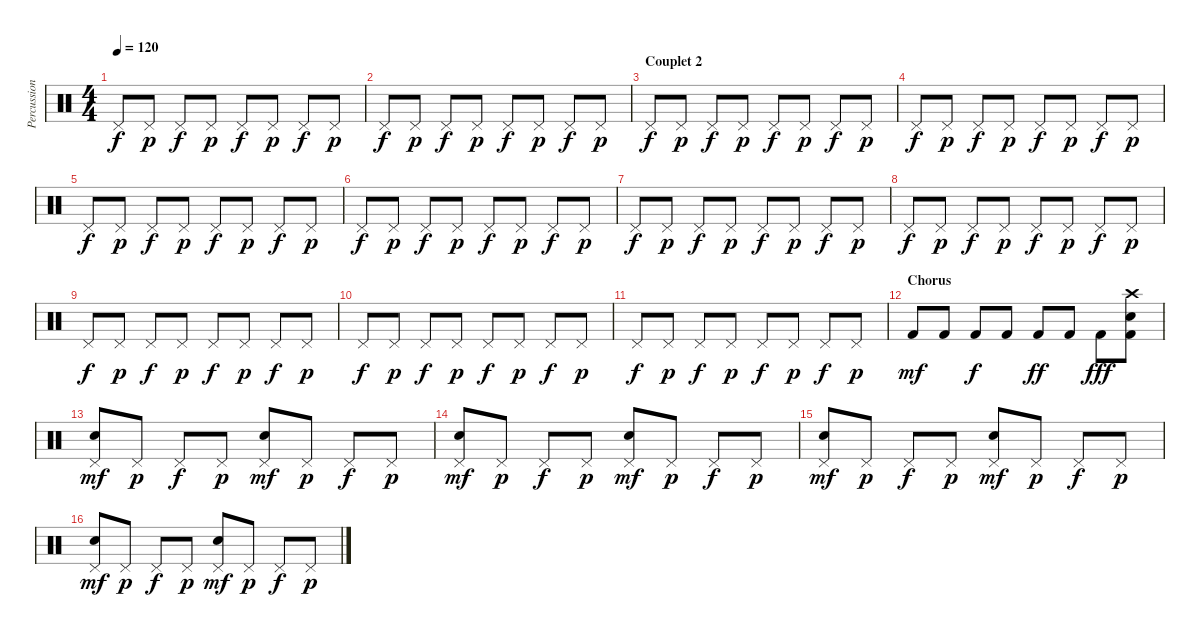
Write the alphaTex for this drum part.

\track ("Percussions" "Percussion") {instrument percussion}
\staff {score}
\articulation defaults
\ts (4 4)
\tempo 120
\clef neutral
\ks c "Pedal Hi-Hat (hit)".8{dy f} "Pedal Hi-Hat (hit)".8{dy p} "Pedal Hi-Hat (hit)".8{dy f} "Pedal Hi-Hat (hit)".8{dy p} "Pedal Hi-Hat (hit)".8{dy f} "Pedal Hi-Hat (hit)".8{dy p} "Pedal Hi-Hat (hit)".8{dy f} "Pedal Hi-Hat (hit)".8{dy p}
|
"Pedal Hi-Hat (hit)".8{dy f} "Pedal Hi-Hat (hit)".8{dy p} "Pedal Hi-Hat (hit)".8{dy f} "Pedal Hi-Hat (hit)".8{dy p} "Pedal Hi-Hat (hit)".8{dy f} "Pedal Hi-Hat (hit)".8{dy p} "Pedal Hi-Hat (hit)".8{dy f} "Pedal Hi-Hat (hit)".8{dy p} |
\section ("" "Couplet 2")
"Pedal Hi-Hat (hit)".8{dy f} "Pedal Hi-Hat (hit)".8{dy p} "Pedal Hi-Hat (hit)".8{dy f} "Pedal Hi-Hat (hit)".8{dy p} "Pedal Hi-Hat (hit)".8{dy f} "Pedal Hi-Hat (hit)".8{dy p} "Pedal Hi-Hat (hit)".8{dy f} "Pedal Hi-Hat (hit)".8{dy p} |
"Pedal Hi-Hat (hit)".8{dy f} "Pedal Hi-Hat (hit)".8{dy p} "Pedal Hi-Hat (hit)".8{dy f} "Pedal Hi-Hat (hit)".8{dy p} "Pedal Hi-Hat (hit)".8{dy f} "Pedal Hi-Hat (hit)".8{dy p} "Pedal Hi-Hat (hit)".8{dy f} "Pedal Hi-Hat (hit)".8{dy p} |
"Pedal Hi-Hat (hit)".8{dy f} "Pedal Hi-Hat (hit)".8{dy p} "Pedal Hi-Hat (hit)".8{dy f} "Pedal Hi-Hat (hit)".8{dy p} "Pedal Hi-Hat (hit)".8{dy f} "Pedal Hi-Hat (hit)".8{dy p} "Pedal Hi-Hat (hit)".8{dy f} "Pedal Hi-Hat (hit)".8{dy p} |
"Pedal Hi-Hat (hit)".8{dy f} "Pedal Hi-Hat (hit)".8{dy p} "Pedal Hi-Hat (hit)".8{dy f} "Pedal Hi-Hat (hit)".8{dy p} "Pedal Hi-Hat (hit)".8{dy f} "Pedal Hi-Hat (hit)".8{dy p} "Pedal Hi-Hat (hit)".8{dy f} "Pedal Hi-Hat (hit)".8{dy p} |
"Pedal Hi-Hat (hit)".8{dy f} "Pedal Hi-Hat (hit)".8{dy p} "Pedal Hi-Hat (hit)".8{dy f} "Pedal Hi-Hat (hit)".8{dy p} "Pedal Hi-Hat (hit)".8{dy f} "Pedal Hi-Hat (hit)".8{dy p} "Pedal Hi-Hat (hit)".8{dy f} "Pedal Hi-Hat (hit)".8{dy p} |
"Pedal Hi-Hat (hit)".8{dy f} "Pedal Hi-Hat (hit)".8{dy p} "Pedal Hi-Hat (hit)".8{dy f} "Pedal Hi-Hat (hit)".8{dy p} "Pedal Hi-Hat (hit)".8{dy f} "Pedal Hi-Hat (hit)".8{dy p} "Pedal Hi-Hat (hit)".8{dy f} "Pedal Hi-Hat (hit)".8{dy p} |
"Pedal Hi-Hat (hit)".8{dy f} "Pedal Hi-Hat (hit)".8{dy p} "Pedal Hi-Hat (hit)".8{dy f} "Pedal Hi-Hat (hit)".8{dy p} "Pedal Hi-Hat (hit)".8{dy f} "Pedal Hi-Hat (hit)".8{dy p} "Pedal Hi-Hat (hit)".8{dy f} "Pedal Hi-Hat (hit)".8{dy p} |
"Pedal Hi-Hat (hit)".8{dy f} "Pedal Hi-Hat (hit)".8{dy p} "Pedal Hi-Hat (hit)".8{dy f} "Pedal Hi-Hat (hit)".8{dy p} "Pedal Hi-Hat (hit)".8{dy f} "Pedal Hi-Hat (hit)".8{dy p} "Pedal Hi-Hat (hit)".8{dy f} "Pedal Hi-Hat (hit)".8{dy p} |
"Pedal Hi-Hat (hit)".8{dy f} "Pedal Hi-Hat (hit)".8{dy p} "Pedal Hi-Hat (hit)".8{dy f} "Pedal Hi-Hat (hit)".8{dy p} "Pedal Hi-Hat (hit)".8{dy f} "Pedal Hi-Hat (hit)".8{dy p} "Pedal Hi-Hat (hit)".8{dy f} "Pedal Hi-Hat (hit)".8{dy p} |
\section ("" "Chorus")
"Kick (hit) 2".8{dy mf} "Kick (hit) 2".8 "Kick (hit) 2".8{dy f} "Kick (hit) 2".8 "Kick (hit) 2".8{dy ff} "Kick (hit) 2".8 "Kick (hit) 2".8{dy fff} ("Kick (hit) 2" "Electric Snare (hit)" "Crash high (hit)").8 |
("Pedal Hi-Hat (hit)" "Hand Clap (hit)").8{dy mf} "Pedal Hi-Hat (hit)".8{dy p} "Pedal Hi-Hat (hit)".8{dy f} "Pedal Hi-Hat (hit)".8{dy p} ("Pedal Hi-Hat (hit)" "Hand Clap (hit)").8{dy mf} "Pedal Hi-Hat (hit)".8{dy p} "Pedal Hi-Hat (hit)".8{dy f} "Pedal Hi-Hat (hit)".8{dy p} |
("Pedal Hi-Hat (hit)" "Hand Clap (hit)").8{dy mf} "Pedal Hi-Hat (hit)".8{dy p} "Pedal Hi-Hat (hit)".8{dy f} "Pedal Hi-Hat (hit)".8{dy p} ("Pedal Hi-Hat (hit)" "Hand Clap (hit)").8{dy mf} "Pedal Hi-Hat (hit)".8{dy p} "Pedal Hi-Hat (hit)".8{dy f} "Pedal Hi-Hat (hit)".8{dy p} |
("Pedal Hi-Hat (hit)" "Hand Clap (hit)").8{dy mf} "Pedal Hi-Hat (hit)".8{dy p} "Pedal Hi-Hat (hit)".8{dy f} "Pedal Hi-Hat (hit)".8{dy p} ("Pedal Hi-Hat (hit)" "Hand Clap (hit)").8{dy mf} "Pedal Hi-Hat (hit)".8{dy p} "Pedal Hi-Hat (hit)".8{dy f} "Pedal Hi-Hat (hit)".8{dy p} |
("Pedal Hi-Hat (hit)" "Hand Clap (hit)").8{dy mf} "Pedal Hi-Hat (hit)".8{dy p} "Pedal Hi-Hat (hit)".8{dy f} "Pedal Hi-Hat (hit)".8{dy p} ("Pedal Hi-Hat (hit)" "Hand Clap (hit)").8{dy mf} "Pedal Hi-Hat (hit)".8{dy p} "Pedal Hi-Hat (hit)".8{dy f} "Pedal Hi-Hat (hit)".8{dy p}
